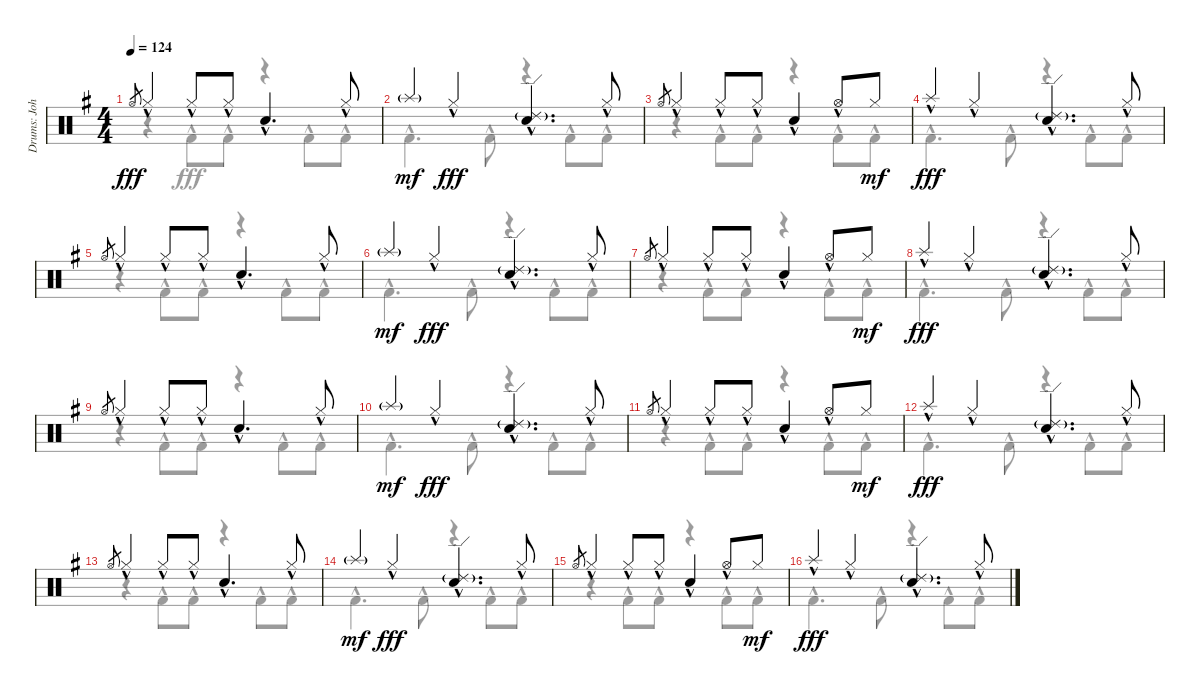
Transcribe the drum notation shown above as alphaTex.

\track ("Drums: John" "Drums: Joh") {instrument percussion}
\staff {score}
\articulation defaults
\voice
\ts (4 4)
\tempo 124
\clef neutral
\ks g "Hi-Hat (open)".8{gr dy fff} "Hi-Hat (closed)"{hac}.4 "Hi-Hat (closed)"{hac}.8 "Hi-Hat (closed)"{hac}.8 "Electric Snare (hit)"{hac}.4{d} "Hi-Hat (closed)"{hac}.8
|
"Splash (hit)"{g}.4{dy mf} "Hi-Hat (closed)"{hac}.4{dy fff} ("Ride (edge) 2"{g} "Electric Snare (hit)"{hac}).4{d} "Hi-Hat (closed)"{hac}.8 |
"Hi-Hat (open)".8{gr} "Hi-Hat (closed)"{hac}.4 "Hi-Hat (closed)"{hac}.8 "Hi-Hat (closed)"{hac}.8 "Electric Snare (hit)"{hac}.4 "Hi-Hat (open)"{hac}.8 "Hi-Hat (closed)".8{dy mf} |
"Splash (hit)"{hac}.4{dy fff} "Hi-Hat (closed)"{hac}.4 ("Ride (edge) 2"{g} "Electric Snare (hit)"{hac}).4{d} "Hi-Hat (closed)"{hac}.8 |
"Hi-Hat (open)".8{gr} "Hi-Hat (closed)"{hac}.4 "Hi-Hat (closed)"{hac}.8 "Hi-Hat (closed)"{hac}.8 "Electric Snare (hit)"{hac}.4{d} "Hi-Hat (closed)"{hac}.8 |
"Splash (hit)"{g}.4{dy mf} "Hi-Hat (closed)"{hac}.4{dy fff} ("Ride (edge) 2"{g} "Electric Snare (hit)"{hac}).4{d} "Hi-Hat (closed)"{hac}.8 |
"Hi-Hat (open)".8{gr} "Hi-Hat (closed)"{hac}.4 "Hi-Hat (closed)"{hac}.8 "Hi-Hat (closed)"{hac}.8 "Electric Snare (hit)"{hac}.4 "Hi-Hat (open)"{hac}.8 "Hi-Hat (closed)".8{dy mf} |
"Splash (hit)"{hac}.4{dy fff} "Hi-Hat (closed)"{hac}.4 ("Ride (edge) 2"{g} "Electric Snare (hit)"{hac}).4{d} "Hi-Hat (closed)"{hac}.8 |
"Hi-Hat (open)".8{gr} "Hi-Hat (closed)"{hac}.4 "Hi-Hat (closed)"{hac}.8 "Hi-Hat (closed)"{hac}.8 "Electric Snare (hit)"{hac}.4{d} "Hi-Hat (closed)"{hac}.8 |
"Splash (hit)"{g}.4{dy mf} "Hi-Hat (closed)"{hac}.4{dy fff} ("Ride (edge) 2"{g} "Electric Snare (hit)"{hac}).4{d} "Hi-Hat (closed)"{hac}.8 |
"Hi-Hat (open)".8{gr} "Hi-Hat (closed)"{hac}.4 "Hi-Hat (closed)"{hac}.8 "Hi-Hat (closed)"{hac}.8 "Electric Snare (hit)"{hac}.4 "Hi-Hat (open)"{hac}.8 "Hi-Hat (closed)".8{dy mf} |
"Splash (hit)"{hac}.4{dy fff} "Hi-Hat (closed)"{hac}.4 ("Ride (edge) 2"{g} "Electric Snare (hit)"{hac}).4{d} "Hi-Hat (closed)"{hac}.8 |
"Hi-Hat (open)".8{gr} "Hi-Hat (closed)"{hac}.4 "Hi-Hat (closed)"{hac}.8 "Hi-Hat (closed)"{hac}.8 "Electric Snare (hit)"{hac}.4{d} "Hi-Hat (closed)"{hac}.8 |
"Splash (hit)"{g}.4{dy mf} "Hi-Hat (closed)"{hac}.4{dy fff} ("Ride (edge) 2"{g} "Electric Snare (hit)"{hac}).4{d} "Hi-Hat (closed)"{hac}.8 |
"Hi-Hat (open)".8{gr} "Hi-Hat (closed)"{hac}.4 "Hi-Hat (closed)"{hac}.8 "Hi-Hat (closed)"{hac}.8 "Electric Snare (hit)"{hac}.4 "Hi-Hat (open)"{hac}.8 "Hi-Hat (closed)".8{dy mf} |
"Splash (hit)"{hac}.4{dy fff} "Hi-Hat (closed)"{hac}.4 ("Ride (edge) 2"{g} "Electric Snare (hit)"{hac}).4{d} "Hi-Hat (closed)"{hac}.8
\voice
\clef neutral
\ottava regular
\simile none
\ks g
r.4{dy fff} "Kick (hit) 2"{hac}.8 "Kick (hit) 2"{hac}.8 r.4 "Kick (hit) 2"{hac}.8 "Kick (hit) 2"{hac}.8 |
"Kick (hit) 2"{hac}.4{d} "Kick (hit) 2"{hac}.8 r.4 "Kick (hit) 2"{hac}.8 "Kick (hit) 2"{hac}.8 |
r.4 "Kick (hit) 2"{hac}.8 "Kick (hit) 2"{hac}.8 r.4 "Kick (hit) 2"{hac}.8 "Kick (hit) 2"{hac}.8 |
"Kick (hit) 2"{hac}.4{d} "Kick (hit) 2"{hac}.8 r.4 "Kick (hit) 2"{hac}.8 "Kick (hit) 2"{hac}.8 |
r.4 "Kick (hit) 2"{hac}.8 "Kick (hit) 2"{hac}.8 r.4 "Kick (hit) 2"{hac}.8 "Kick (hit) 2"{hac}.8 |
"Kick (hit) 2"{hac}.4{d} "Kick (hit) 2"{hac}.8 r.4 "Kick (hit) 2"{hac}.8 "Kick (hit) 2"{hac}.8 |
r.4 "Kick (hit) 2"{hac}.8 "Kick (hit) 2"{hac}.8 r.4 "Kick (hit) 2"{hac}.8 "Kick (hit) 2"{hac}.8 |
"Kick (hit) 2"{hac}.4{d} "Kick (hit) 2"{hac}.8 r.4 "Kick (hit) 2"{hac}.8 "Kick (hit) 2"{hac}.8 |
r.4 "Kick (hit) 2"{hac}.8 "Kick (hit) 2"{hac}.8 r.4 "Kick (hit) 2"{hac}.8 "Kick (hit) 2"{hac}.8 |
"Kick (hit) 2"{hac}.4{d} "Kick (hit) 2"{hac}.8 r.4 "Kick (hit) 2"{hac}.8 "Kick (hit) 2"{hac}.8 |
r.4 "Kick (hit) 2"{hac}.8 "Kick (hit) 2"{hac}.8 r.4 "Kick (hit) 2"{hac}.8 "Kick (hit) 2"{hac}.8 |
"Kick (hit) 2"{hac}.4{d} "Kick (hit) 2"{hac}.8 r.4 "Kick (hit) 2"{hac}.8 "Kick (hit) 2"{hac}.8 |
r.4 "Kick (hit) 2"{hac}.8 "Kick (hit) 2"{hac}.8 r.4 "Kick (hit) 2"{hac}.8 "Kick (hit) 2"{hac}.8 |
"Kick (hit) 2"{hac}.4{d} "Kick (hit) 2"{hac}.8 r.4 "Kick (hit) 2"{hac}.8 "Kick (hit) 2"{hac}.8 |
r.4 "Kick (hit) 2"{hac}.8 "Kick (hit) 2"{hac}.8 r.4 "Kick (hit) 2"{hac}.8 "Kick (hit) 2"{hac}.8 |
"Kick (hit) 2"{hac}.4{d} "Kick (hit) 2"{hac}.8 r.4 "Kick (hit) 2"{hac}.8 "Kick (hit) 2"{hac}.8
